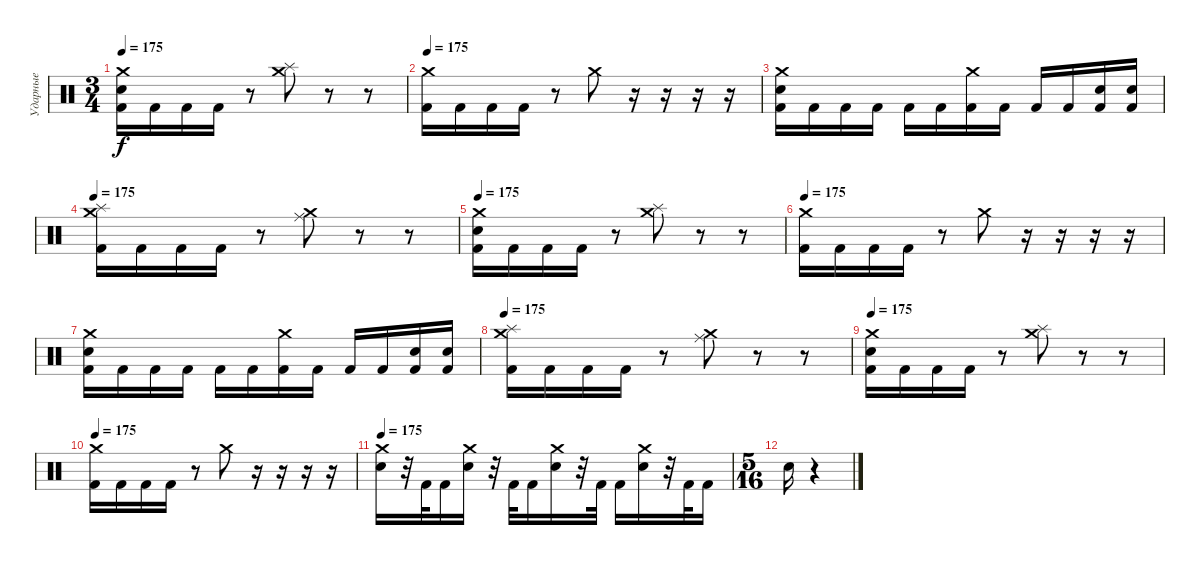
\track ("Ударные" "Ударные") {instrument percussion}
\staff {score}
\articulation defaults
\ts (3 4)
\tempo 175
\clef neutral
\ks c
("Crash medium (hit)" "Electric Snare (hit)" "Kick (hit) 2").16{dy f} "Kick (hit) 2".16 "Kick (hit) 2".16 "Kick (hit) 2".16 r.8 ("Crash medium (hit)" "Splash (hit)").8 r.8 r.8 |
\tempo 175
("Crash medium (hit)" "Kick (hit) 2").16 "Kick (hit) 2".16 "Kick (hit) 2".16 "Kick (hit) 2".16 r.8 "Crash medium (hit)".8 r.16 r.16 r.16 r.16 |
("Crash medium (hit)" "Electric Snare (hit)" "Kick (hit) 2").16 "Kick (hit) 2".16 "Kick (hit) 2".16 "Kick (hit) 2".16 "Kick (hit) 2".16 "Kick (hit) 2".16 ("Crash medium (hit)" "Kick (hit) 2").16 "Kick (hit) 2".16 "Kick (hit) 2".16 "Kick (hit) 2".16 ("Electric Snare (hit)" "Kick (hit) 2").16 ("Electric Snare (hit)" "Kick (hit) 2").16 |
\tempo 175
("Crash medium (hit)" "Splash (hit)" "Kick (hit) 2").16 "Kick (hit) 2".16 "Kick (hit) 2".16 "Kick (hit) 2".16 r.8 ("Crash medium (hit)" "Ride (middle)").8 r.8 r.8 |
\tempo 175
("Crash medium (hit)" "Electric Snare (hit)" "Kick (hit) 2").16 "Kick (hit) 2".16 "Kick (hit) 2".16 "Kick (hit) 2".16 r.8 ("Crash medium (hit)" "Splash (hit)").8 r.8 r.8 |
\tempo 175
("Crash medium (hit)" "Kick (hit) 2").16 "Kick (hit) 2".16 "Kick (hit) 2".16 "Kick (hit) 2".16 r.8 "Crash medium (hit)".8 r.16 r.16 r.16 r.16 |
("Crash medium (hit)" "Electric Snare (hit)" "Kick (hit) 2").16 "Kick (hit) 2".16 "Kick (hit) 2".16 "Kick (hit) 2".16 "Kick (hit) 2".16 "Kick (hit) 2".16 ("Crash medium (hit)" "Kick (hit) 2").16 "Kick (hit) 2".16 "Kick (hit) 2".16 "Kick (hit) 2".16 ("Electric Snare (hit)" "Kick (hit) 2").16 ("Electric Snare (hit)" "Kick (hit) 2").16 |
\tempo 175
("Crash medium (hit)" "Splash (hit)" "Kick (hit) 2").16 "Kick (hit) 2".16 "Kick (hit) 2".16 "Kick (hit) 2".16 r.8 ("Crash medium (hit)" "Ride (middle)").8 r.8 r.8 |
\tempo 175
("Crash medium (hit)" "Electric Snare (hit)" "Kick (hit) 2").16 "Kick (hit) 2".16 "Kick (hit) 2".16 "Kick (hit) 2".16 r.8 ("Crash medium (hit)" "Splash (hit)").8 r.8 r.8 |
\tempo 175
("Crash medium (hit)" "Kick (hit) 2").16 "Kick (hit) 2".16 "Kick (hit) 2".16 "Kick (hit) 2".16 r.8 "Crash medium (hit)".8 r.16 r.16 r.16 r.16 |
\tempo 175
("Crash medium (hit)" "Electric Snare (hit)").16 r.32 "Kick (hit) 2".32 "Kick (hit) 2".16 ("Crash medium (hit)" "Electric Snare (hit)").16 r.32 "Kick (hit) 2".32 "Kick (hit) 2".16 ("Crash medium (hit)" "Electric Snare (hit)").16 r.32 "Kick (hit) 2".32 "Kick (hit) 2".16 ("Crash medium (hit)" "Electric Snare (hit)").16 r.32 "Kick (hit) 2".32 "Kick (hit) 2".16 |
\ts (5 16)
"Electric Snare (hit)".16 r.4
